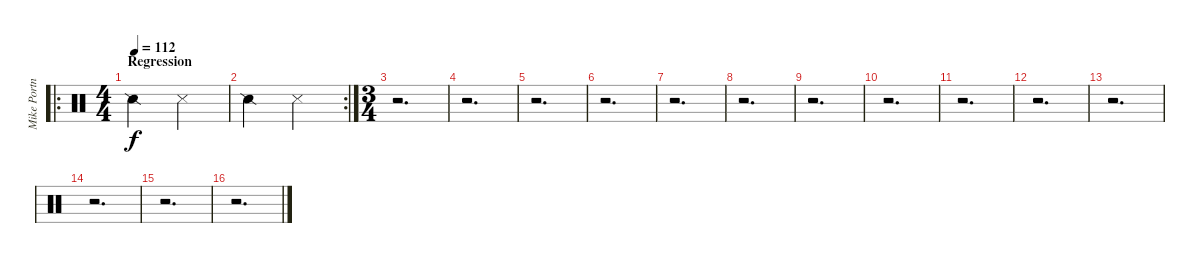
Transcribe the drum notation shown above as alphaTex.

\track ("Mike Portnoy - Drum" "Mike Portn") {instrument percussion}
\staff {score}
\articulation defaults
\ro
\ts (4 4)
\section ("" "Regression")
\tempo 112
\clef neutral
\ks c "Snare (side stick) 2".2{dy f} "Metronome (hit)".2
|
\rc 2 "Snare (side stick) 2".2 "Metronome (hit)".2
|
\ts (3 4)
r.2{d} |
r.2{d} |
r.2{d} |
r.2{d} |
r.2{d} |
r.2{d} |
r.2{d} |
r.2{d} |
r.2{d} |
r.2{d} |
r.2{d} |
r.2{d} |
r.2{d} |
r.2{d}
